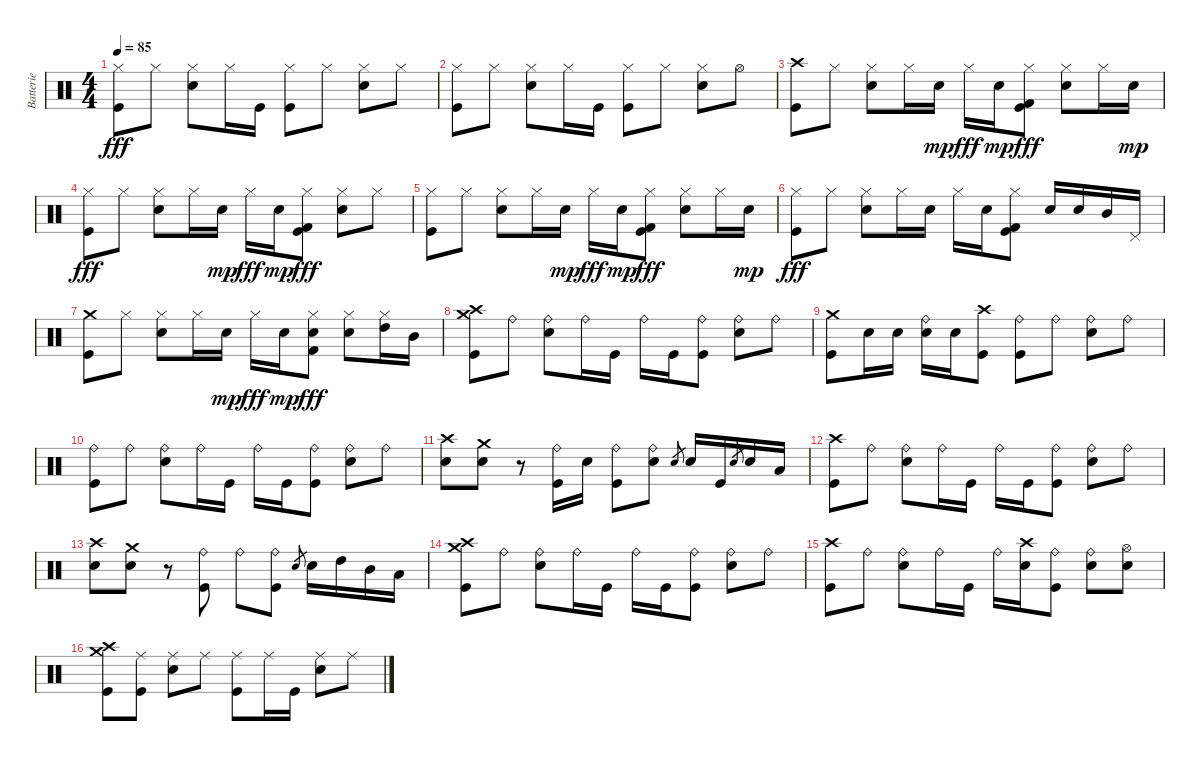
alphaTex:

\track ("Batterie" "Batterie") {instrument percussion}
\staff {score}
\articulation defaults
\ts (4 4)
\tempo 85
\clef neutral
\ks c
("Hi-Hat (closed)" "Kick (hit)").8{dy fff} "Hi-Hat (closed)".8 ("Hi-Hat (closed)" "Electric Snare (hit)").8 "Hi-Hat (closed)".16 "Kick (hit)".16 ("Hi-Hat (closed)" "Kick (hit)").8 "Hi-Hat (closed)".8 ("Hi-Hat (closed)" "Electric Snare (hit)").8 "Hi-Hat (closed)".8 |
("Hi-Hat (closed)" "Kick (hit)").8 "Hi-Hat (closed)".8 ("Hi-Hat (closed)" "Electric Snare (hit)").8 "Hi-Hat (closed)".16 "Kick (hit)".16 ("Hi-Hat (closed)" "Kick (hit)").8 "Hi-Hat (closed)".8 ("Hi-Hat (closed)" "Electric Snare (hit)").8 "Hi-Hat (open)".8 |
("Crash high (hit)" "Kick (hit)").8 "Hi-Hat (closed)".8 ("Hi-Hat (closed)" "Electric Snare (hit)").8 "Hi-Hat (closed)".16 "Electric Snare (hit)".16{dy mp} "Hi-Hat (closed)".16{dy fff} "Electric Snare (hit)".16{dy mp} ("Hi-Hat (closed)" "Kick (hit)" "Kick (hit) 2").8{dy fff} ("Hi-Hat (closed)" "Electric Snare (hit)").8 "Hi-Hat (closed)".16 "Electric Snare (hit)".16{dy mp} |
("Hi-Hat (closed)" "Kick (hit)").8{dy fff} "Hi-Hat (closed)".8 ("Hi-Hat (closed)" "Electric Snare (hit)").8 "Hi-Hat (closed)".16 "Electric Snare (hit)".16{dy mp} "Hi-Hat (closed)".16{dy fff} "Electric Snare (hit)".16{dy mp} ("Hi-Hat (closed)" "Kick (hit)" "Kick (hit) 2").8{dy fff} ("Hi-Hat (closed)" "Electric Snare (hit)").8 "Hi-Hat (closed)".8 |
("Hi-Hat (closed)" "Kick (hit)").8 "Hi-Hat (closed)".8 ("Hi-Hat (closed)" "Electric Snare (hit)").8 "Hi-Hat (closed)".16 "Electric Snare (hit)".16{dy mp} "Hi-Hat (closed)".16{dy fff} "Electric Snare (hit)".16{dy mp} ("Hi-Hat (closed)" "Kick (hit)" "Kick (hit) 2").8{dy fff} ("Hi-Hat (closed)" "Electric Snare (hit)").8 "Hi-Hat (closed)".16 "Electric Snare (hit)".16{dy mp} |
("Hi-Hat (closed)" "Kick (hit)").8{dy fff} "Hi-Hat (closed)".8 ("Hi-Hat (closed)" "Electric Snare (hit)").8 "Hi-Hat (closed)".16 "Electric Snare (hit)".16 "Hi-Hat (closed)".16 "Electric Snare (hit)".16 ("Hi-Hat (closed)" "Kick (hit)" "Kick (hit) 2").8 "Electric Snare (hit)".16 "Electric Snare (hit)".16 "Mid Tom (hit)".16 "Pedal Hi-Hat (hit)".16 |
("Crash medium (hit)" "Kick (hit)").8 "Hi-Hat (closed)".8 ("Hi-Hat (closed)" "Electric Snare (hit)").8 "Hi-Hat (closed)".16 "Electric Snare (hit)".16{dy mp} "Hi-Hat (closed)".16{dy fff} "Electric Snare (hit)".16{dy mp} ("Hi-Hat (closed)" "Electric Snare (hit)" "Kick (hit) 2").8{dy fff} ("Hi-Hat (closed)" "Electric Snare (hit)").8 ("Hi-Hat (closed)" "High Tom (hit)").16 "Mid Tom (hit)".16 |
("Crash high (hit)" "Kick (hit)" "Crash medium (hit)").8 "Ride (bell)".8 ("Ride (bell)" "Electric Snare (hit)").8 "Ride (bell)".16 "Kick (hit)".16 "Ride (bell)".16 "Kick (hit)".16 ("Ride (bell)" "Kick (hit)").8 ("Ride (bell)" "Electric Snare (hit)").8 "Ride (bell)".8 |
("Crash medium (hit)" "Kick (hit)").8 "Electric Snare (hit)".16 "Electric Snare (hit)".16 ("Ride (bell)" "Electric Snare (hit)").16 "Electric Snare (hit)".16 ("Crash high (hit)" "Kick (hit)").8 ("Ride (bell)" "Kick (hit)").8 "Ride (bell)".8 ("Ride (bell)" "Electric Snare (hit)").8 "Ride (bell)".8 |
("Ride (bell)" "Kick (hit)").8 "Ride (bell)".8 ("Ride (bell)" "Electric Snare (hit)").8 "Ride (bell)".16 "Kick (hit)".16 "Ride (bell)".16 "Kick (hit)".16 ("Ride (bell)" "Kick (hit)").8 ("Ride (bell)" "Electric Snare (hit)").8 "Ride (bell)".8 |
("Crash high (hit)" "Electric Snare (hit)").8 ("Crash medium (hit)" "Electric Snare (hit)").8 r.8 ("Ride (bell)" "Kick (hit)").16 "Electric Snare (hit)".16 ("Ride (bell)" "Kick (hit)").8 ("Ride (bell)" "Electric Snare (hit)").8 "Electric Snare (hit)".8{gr} "Electric Snare (hit)".16 "Kick (hit)".16 "Electric Snare (hit)".8{gr} "Electric Snare (hit)".16 "Low Floor Tom (hit)".16 |
("Crash high (hit)" "Kick (hit)").8 "Ride (bell)".8 ("Ride (bell)" "Electric Snare (hit)").8 "Ride (bell)".16 "Kick (hit)".16 "Ride (bell)".16 "Kick (hit)".16 ("Ride (bell)" "Kick (hit)").8 ("Ride (bell)" "Electric Snare (hit)").8 "Ride (bell)".8 |
("Crash high (hit)" "Electric Snare (hit)").8 ("Crash medium (hit)" "Electric Snare (hit)").8 r.8 ("Ride (bell)" "Kick (hit)").8 "Ride (bell)".8 ("Ride (bell)" "Kick (hit)").8 "Electric Snare (hit)".8{gr} "Electric Snare (hit)".16 "High Tom (hit)".16 "Mid Tom (hit)".16 "Low Floor Tom (hit)".16 |
("Crash high (hit)" "Kick (hit)" "Crash medium (hit)").8 "Ride (bell)".8 ("Ride (bell)" "Electric Snare (hit)").8 "Ride (bell)".16 "Kick (hit)".16 "Ride (bell)".16 "Kick (hit)".16 ("Ride (bell)" "Kick (hit)").8 ("Ride (bell)" "Electric Snare (hit)").8 "Ride (bell)".8 |
("Crash high (hit)" "Kick (hit)").8 "Ride (bell)".8 ("Ride (bell)" "Electric Snare (hit)").8 "Ride (bell)".16 "Kick (hit)".16 "Ride (bell)".16 ("Crash high (hit)" "Electric Snare (hit)").16 ("Ride (bell)" "Kick (hit)").8 ("Ride (bell)" "Electric Snare (hit)").8 ("Hi-Hat (open)" "Electric Snare (hit)").8 |
("Crash high (hit)" "Kick (hit)" "Crash medium (hit)").8 ("Ride (middle)" "Kick (hit)").8 ("Ride (middle)" "Electric Snare (hit)").8 "Ride (middle)".8 ("Ride (middle)" "Kick (hit)").8 "Ride (middle)".16 "Kick (hit)".16 ("Ride (middle)" "Electric Snare (hit)").8 "Ride (middle)".8
